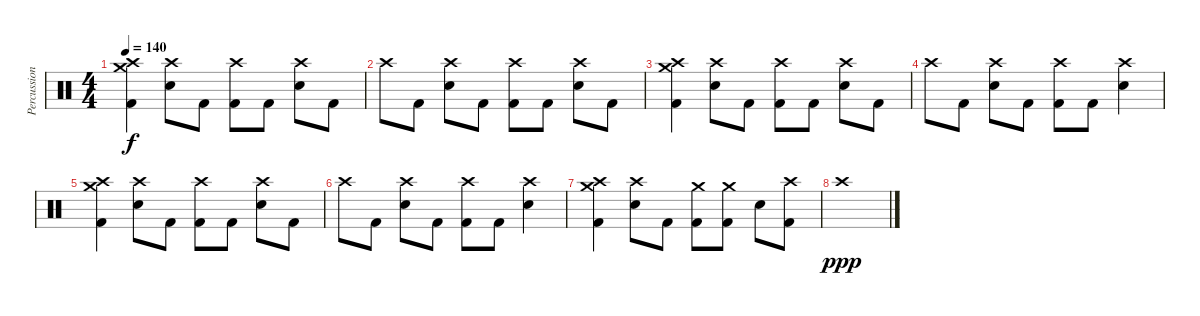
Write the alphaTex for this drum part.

\track ("Percussion" "Percussion") {instrument percussion}
\staff {score}
\articulation defaults
\ts (4 4)
\tempo 140
\clef neutral
\ks c
("Crash medium (hit)" "Crash high (hit)" "Kick (hit) 2").4{dy f} ("Crash high (hit)" "Electric Snare (hit)").8 "Kick (hit) 2".8 ("Crash high (hit)" "Kick (hit) 2").8 "Kick (hit) 2".8 ("Crash high (hit)" "Electric Snare (hit)").8 "Kick (hit) 2".8 |
"Crash high (hit)".8 "Kick (hit) 2".8 ("Crash high (hit)" "Electric Snare (hit)").8 "Kick (hit) 2".8 ("Crash high (hit)" "Kick (hit) 2").8 "Kick (hit) 2".8 ("Crash high (hit)" "Electric Snare (hit)").8 "Kick (hit) 2".8 |
("Crash medium (hit)" "Crash high (hit)" "Kick (hit) 2").4 ("Crash high (hit)" "Electric Snare (hit)").8 "Kick (hit) 2".8 ("Crash high (hit)" "Kick (hit) 2").8 "Kick (hit) 2".8 ("Crash high (hit)" "Electric Snare (hit)").8 "Kick (hit) 2".8 |
"Crash high (hit)".8 "Kick (hit) 2".8 ("Crash high (hit)" "Electric Snare (hit)").8 "Kick (hit) 2".8 ("Crash high (hit)" "Kick (hit) 2").8 "Kick (hit) 2".8 ("Crash high (hit)" "Electric Snare (hit)").4 |
("Crash medium (hit)" "Crash high (hit)" "Kick (hit) 2").4 ("Crash high (hit)" "Electric Snare (hit)").8 "Kick (hit) 2".8 ("Crash high (hit)" "Kick (hit) 2").8 "Kick (hit) 2".8 ("Crash high (hit)" "Electric Snare (hit)").8 "Kick (hit) 2".8 |
"Crash high (hit)".8 "Kick (hit) 2".8 ("Crash high (hit)" "Electric Snare (hit)").8 "Kick (hit) 2".8 ("Crash high (hit)" "Kick (hit) 2").8 "Kick (hit) 2".8 ("Crash high (hit)" "Electric Snare (hit)").4 |
("Crash medium (hit)" "Crash high (hit)" "Kick (hit) 2").4 ("Crash high (hit)" "Electric Snare (hit)").8 "Kick (hit) 2".8 ("Crash medium (hit)" "Kick (hit) 2").8 ("Crash medium (hit)" "Kick (hit) 2").8 "Electric Snare (hit)".8 ("Crash high (hit)" "Kick (hit) 2").8 |
"Crash high (hit)".1{dy ppp}
